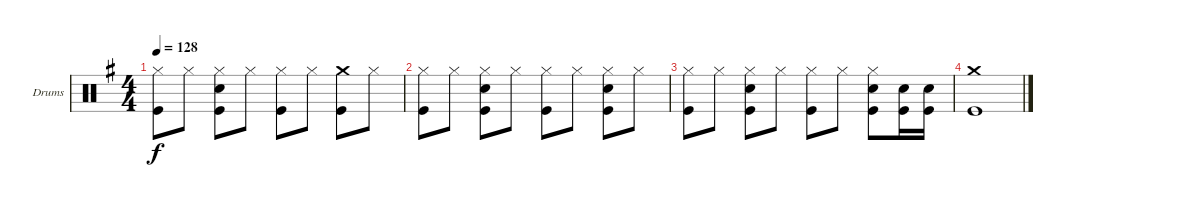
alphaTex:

\bracketExtendMode groupsimilarinstruments
\firstSystemTrackNameOrientation horizontal
\otherSystemsTrackNameOrientation horizontal
\track ("Drumkit" "Drums") {multiBarRest instrument percussion}
\staff {score}
\articulation defaults
\ts (4 4)
\tempo 128
\clef neutral
\ks eminor
("Hi-Hat (closed)" "Kick (hit)").8{dy f} "Hi-Hat (closed)".8 ("Hi-Hat (closed)" "Snare (hit) 2" "Kick (hit)").8 "Hi-Hat (closed)".8 ("Hi-Hat (closed)" "Kick (hit)").8 "Hi-Hat (closed)".8 ("Crash medium (hit)" "Kick (hit)").8 "Hi-Hat (closed)".8 |
("Hi-Hat (closed)" "Kick (hit)").8 "Hi-Hat (closed)".8 ("Hi-Hat (closed)" "Snare (hit) 2" "Kick (hit)").8 "Hi-Hat (closed)".8 ("Hi-Hat (closed)" "Kick (hit)").8 "Hi-Hat (closed)".8 ("Hi-Hat (closed)" "Snare (hit) 2" "Kick (hit)").8 "Hi-Hat (closed)".8 |
("Hi-Hat (closed)" "Kick (hit)").8 "Hi-Hat (closed)".8 ("Hi-Hat (closed)" "Snare (hit) 2" "Kick (hit)").8 "Hi-Hat (closed)".8 ("Hi-Hat (closed)" "Kick (hit)").8 "Hi-Hat (closed)".8 ("Hi-Hat (closed)" "Snare (hit) 2" "Kick (hit)").8 ("Snare (hit) 2" "Kick (hit)").16 ("Snare (hit) 2" "Kick (hit)").16 |
("Crash medium (hit)" "Kick (hit)").1
